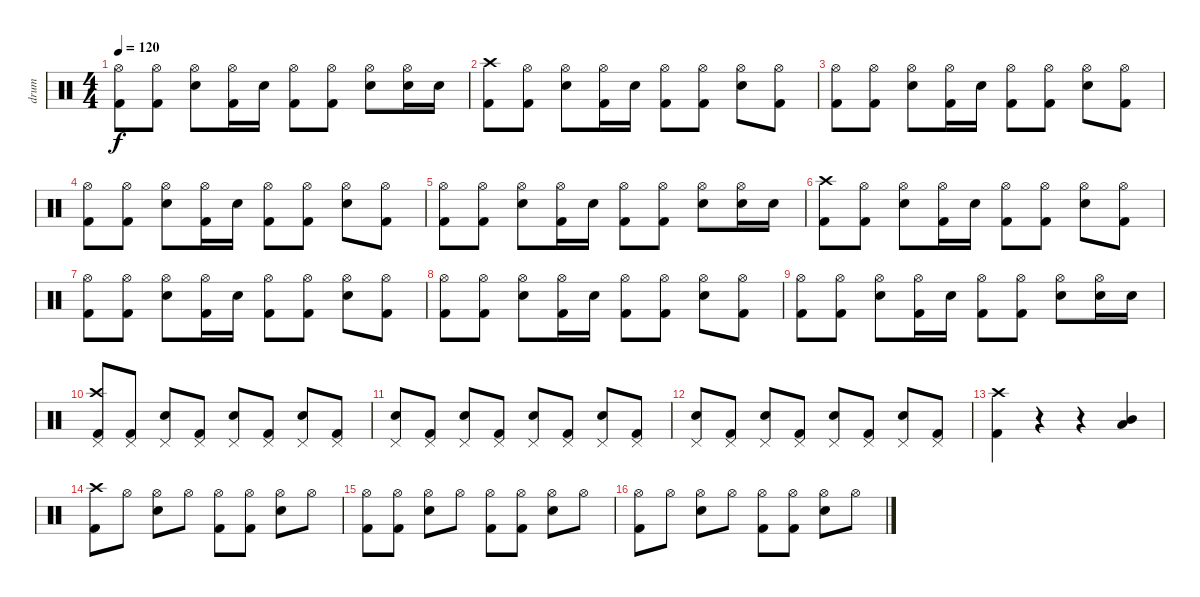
\track ("drum" "drum") {instrument percussion}
\staff {score}
\articulation defaults
\ts (4 4)
\tempo 120
\clef neutral
\ks c
("Hi-Hat (open)" "Kick (hit) 2").8{dy f} ("Hi-Hat (open)" "Kick (hit) 2").8 ("Hi-Hat (open)" "Snare (hit) 2").8 ("Hi-Hat (open)" "Kick (hit) 2").16 "Snare (hit) 2".16 ("Hi-Hat (open)" "Kick (hit) 2").8 ("Hi-Hat (open)" "Kick (hit) 2").8 ("Hi-Hat (open)" "Snare (hit) 2").8 ("Hi-Hat (open)" "Snare (hit) 2").16 "Snare (hit) 2".16 |
("Crash high (hit)" "Kick (hit) 2").8 ("Hi-Hat (open)" "Kick (hit) 2").8 ("Hi-Hat (open)" "Snare (hit) 2").8 ("Hi-Hat (open)" "Kick (hit) 2").16 "Snare (hit) 2".16 ("Hi-Hat (open)" "Kick (hit) 2").8 ("Hi-Hat (open)" "Kick (hit) 2").8 ("Hi-Hat (open)" "Snare (hit) 2").8 ("Hi-Hat (open)" "Kick (hit) 2").8 |
("Hi-Hat (open)" "Kick (hit) 2").8 ("Hi-Hat (open)" "Kick (hit) 2").8 ("Hi-Hat (open)" "Snare (hit) 2").8 ("Hi-Hat (open)" "Kick (hit) 2").16 "Snare (hit) 2".16 ("Hi-Hat (open)" "Kick (hit) 2").8 ("Hi-Hat (open)" "Kick (hit) 2").8 ("Hi-Hat (open)" "Snare (hit) 2").8 ("Hi-Hat (open)" "Kick (hit) 2").8 |
("Hi-Hat (open)" "Kick (hit) 2").8 ("Hi-Hat (open)" "Kick (hit) 2").8 ("Hi-Hat (open)" "Snare (hit) 2").8 ("Hi-Hat (open)" "Kick (hit) 2").16 "Snare (hit) 2".16 ("Hi-Hat (open)" "Kick (hit) 2").8 ("Hi-Hat (open)" "Kick (hit) 2").8 ("Hi-Hat (open)" "Snare (hit) 2").8 ("Hi-Hat (open)" "Kick (hit) 2").8 |
("Hi-Hat (open)" "Kick (hit) 2").8 ("Hi-Hat (open)" "Kick (hit) 2").8 ("Hi-Hat (open)" "Snare (hit) 2").8 ("Hi-Hat (open)" "Kick (hit) 2").16 "Snare (hit) 2".16 ("Hi-Hat (open)" "Kick (hit) 2").8 ("Hi-Hat (open)" "Kick (hit) 2").8 ("Hi-Hat (open)" "Snare (hit) 2").8 ("Hi-Hat (open)" "Snare (hit) 2").16 "Snare (hit) 2".16 |
("Crash high (hit)" "Kick (hit) 2").8 ("Hi-Hat (open)" "Kick (hit) 2").8 ("Hi-Hat (open)" "Snare (hit) 2").8 ("Hi-Hat (open)" "Kick (hit) 2").16 "Snare (hit) 2".16 ("Hi-Hat (open)" "Kick (hit) 2").8 ("Hi-Hat (open)" "Kick (hit) 2").8 ("Hi-Hat (open)" "Snare (hit) 2").8 ("Hi-Hat (open)" "Kick (hit) 2").8 |
("Hi-Hat (open)" "Kick (hit) 2").8 ("Hi-Hat (open)" "Kick (hit) 2").8 ("Hi-Hat (open)" "Snare (hit) 2").8 ("Hi-Hat (open)" "Kick (hit) 2").16 "Snare (hit) 2".16 ("Hi-Hat (open)" "Kick (hit) 2").8 ("Hi-Hat (open)" "Kick (hit) 2").8 ("Hi-Hat (open)" "Snare (hit) 2").8 ("Hi-Hat (open)" "Kick (hit) 2").8 |
("Hi-Hat (open)" "Kick (hit) 2").8 ("Hi-Hat (open)" "Kick (hit) 2").8 ("Hi-Hat (open)" "Snare (hit) 2").8 ("Hi-Hat (open)" "Kick (hit) 2").16 "Snare (hit) 2".16 ("Hi-Hat (open)" "Kick (hit) 2").8 ("Hi-Hat (open)" "Kick (hit) 2").8 ("Hi-Hat (open)" "Snare (hit) 2").8 ("Hi-Hat (open)" "Kick (hit) 2").8 |
("Hi-Hat (open)" "Kick (hit) 2").8 ("Hi-Hat (open)" "Kick (hit) 2").8 ("Hi-Hat (open)" "Snare (hit) 2").8 ("Hi-Hat (open)" "Kick (hit) 2").16 "Snare (hit) 2".16 ("Hi-Hat (open)" "Kick (hit) 2").8 ("Hi-Hat (open)" "Kick (hit) 2").8 ("Hi-Hat (open)" "Snare (hit) 2").8 ("Hi-Hat (open)" "Snare (hit) 2").16 "Snare (hit) 2".16 |
("Crash high (hit)" "Pedal Hi-Hat (hit)" "Kick (hit) 2").8 ("Pedal Hi-Hat (hit)" "Kick (hit) 2").8 ("Pedal Hi-Hat (hit)" "Snare (hit) 2").8 ("Pedal Hi-Hat (hit)" "Kick (hit) 2").8 ("Pedal Hi-Hat (hit)" "Snare (hit) 2").8 ("Pedal Hi-Hat (hit)" "Kick (hit) 2").8 ("Pedal Hi-Hat (hit)" "Snare (hit) 2").8 ("Pedal Hi-Hat (hit)" "Kick (hit) 2").8 |
("Pedal Hi-Hat (hit)" "Snare (hit) 2").8 ("Pedal Hi-Hat (hit)" "Kick (hit) 2").8 ("Pedal Hi-Hat (hit)" "Snare (hit) 2").8 ("Pedal Hi-Hat (hit)" "Kick (hit) 2").8 ("Pedal Hi-Hat (hit)" "Snare (hit) 2").8 ("Pedal Hi-Hat (hit)" "Kick (hit) 2").8 ("Pedal Hi-Hat (hit)" "Snare (hit) 2").8 ("Pedal Hi-Hat (hit)" "Kick (hit) 2").8 |
("Pedal Hi-Hat (hit)" "Snare (hit) 2").8 ("Pedal Hi-Hat (hit)" "Kick (hit) 2").8 ("Pedal Hi-Hat (hit)" "Snare (hit) 2").8 ("Pedal Hi-Hat (hit)" "Kick (hit) 2").8 ("Pedal Hi-Hat (hit)" "Snare (hit) 2").8 ("Pedal Hi-Hat (hit)" "Kick (hit) 2").8 ("Pedal Hi-Hat (hit)" "Snare (hit) 2").8 ("Pedal Hi-Hat (hit)" "Kick (hit) 2").8 |
("Crash high (hit)" "Kick (hit) 2").4 r.4 r.4 ("Low Tom (hit)" "Mid Tom (hit)").4 |
("Crash high (hit)" "Kick (hit) 2").8 "Hi-Hat (open)".8 ("Hi-Hat (open)" "Snare (hit) 2").8 "Hi-Hat (open)".8 ("Hi-Hat (open)" "Kick (hit) 2").8 ("Hi-Hat (open)" "Kick (hit) 2").8 ("Hi-Hat (open)" "Snare (hit) 2").8 "Hi-Hat (open)".8 |
("Hi-Hat (open)" "Kick (hit) 2").8 ("Hi-Hat (open)" "Kick (hit) 2").8 ("Hi-Hat (open)" "Snare (hit) 2").8 "Hi-Hat (open)".8 ("Hi-Hat (open)" "Kick (hit) 2").8 ("Hi-Hat (open)" "Kick (hit) 2").8 ("Hi-Hat (open)" "Snare (hit) 2").8 "Hi-Hat (open)".8 |
("Hi-Hat (open)" "Kick (hit) 2").8 "Hi-Hat (open)".8 ("Hi-Hat (open)" "Snare (hit) 2").8 "Hi-Hat (open)".8 ("Hi-Hat (open)" "Kick (hit) 2").8 ("Hi-Hat (open)" "Kick (hit) 2").8 ("Hi-Hat (open)" "Snare (hit) 2").8 "Hi-Hat (open)".8
